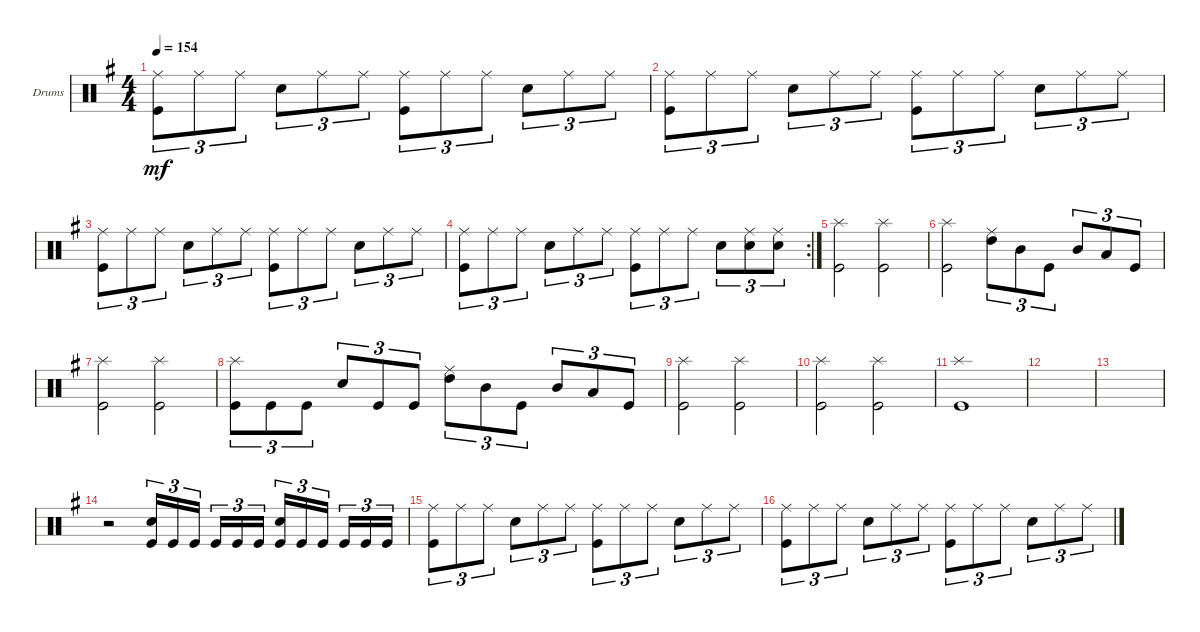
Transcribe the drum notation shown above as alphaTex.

\defaultSystemsLayout 4
\bracketExtendMode groupsimilarinstruments
\firstSystemTrackNameOrientation horizontal
\otherSystemsTrackNameOrientation horizontal
\track ("Drumkit" "Drums") {instrument percussion}
\staff {score}
\articulation defaults
\ts (4 4)
\tempo 154
\clef neutral
\ks g
("Kick (hit)" "Ride (middle)").8{tu (3 2) dy mf} "Ride (middle)".8{tu (3 2)} "Ride (middle)".8{tu (3 2)} "Snare (hit) 2".8{tu (3 2)} "Ride (middle)".8{tu (3 2)} "Ride (middle)".8{tu (3 2)} ("Ride (middle)" "Kick (hit)").8{tu (3 2)} "Ride (middle)".8{tu (3 2)} "Ride (middle)".8{tu (3 2)} "Snare (hit) 2".8{tu (3 2)} "Ride (middle)".8{tu (3 2)} "Ride (middle)".8{tu (3 2)} |
("Kick (hit)" "Ride (middle)").8{tu (3 2)} "Ride (middle)".8{tu (3 2)} "Ride (middle)".8{tu (3 2)} "Snare (hit) 2".8{tu (3 2)} "Ride (middle)".8{tu (3 2)} "Ride (middle)".8{tu (3 2)} ("Ride (middle)" "Kick (hit)").8{tu (3 2)} "Ride (middle)".8{tu (3 2)} "Ride (middle)".8{tu (3 2)} "Snare (hit) 2".8{tu (3 2)} "Ride (middle)".8{tu (3 2)} "Ride (middle)".8{tu (3 2)} |
("Kick (hit)" "Ride (middle)").8{tu (3 2)} "Ride (middle)".8{tu (3 2)} "Ride (middle)".8{tu (3 2)} "Snare (hit) 2".8{tu (3 2)} "Ride (middle)".8{tu (3 2)} "Ride (middle)".8{tu (3 2)} ("Ride (middle)" "Kick (hit)").8{tu (3 2)} "Ride (middle)".8{tu (3 2)} "Ride (middle)".8{tu (3 2)} "Snare (hit) 2".8{tu (3 2)} "Ride (middle)".8{tu (3 2)} "Ride (middle)".8{tu (3 2)} |
\rc 2
("Kick (hit)" "Ride (middle)").8{tu (3 2)} "Ride (middle)".8{tu (3 2)} "Ride (middle)".8{tu (3 2)} "Snare (hit) 2".8{tu (3 2)} "Ride (middle)".8{tu (3 2)} "Ride (middle)".8{tu (3 2)} ("Ride (middle)" "Kick (hit)").8{tu (3 2)} "Ride (middle)".8{tu (3 2)} "Ride (middle)".8{tu (3 2)} "Snare (hit) 2".8{tu (3 2)} ("Ride (middle)" "Snare (hit) 2").8{tu (3 2)} ("Ride (middle)" "Snare (hit) 2").8{tu (3 2)} |
("Kick (hit)" "Splash (hit)").2 ("Kick (hit)" "Splash (hit)").2 |
("Kick (hit)" "Splash (hit)").2 ("Ride (middle)" "High Tom (hit)").8{tu (3 2)} "Mid Tom (hit)".8{tu (3 2)} "Kick (hit)".8{tu (3 2)} "Mid Tom (hit)".8{tu (3 2)} "Low Tom (hit)".8{tu (3 2)} "Kick (hit)".8{tu (3 2)} |
("Kick (hit)" "Splash (hit)").2 ("Kick (hit)" "Splash (hit)").2 |
("Kick (hit)" "Splash (hit)").8{tu (3 2)} "Kick (hit)".8{tu (3 2)} "Kick (hit)".8{tu (3 2)} "Snare (hit) 2".8{tu (3 2)} "Kick (hit)".8{tu (3 2)} "Kick (hit)".8{tu (3 2)} ("Ride (middle)" "High Tom (hit)").8{tu (3 2)} "Mid Tom (hit)".8{tu (3 2)} "Kick (hit)".8{tu (3 2)} "Mid Tom (hit)".8{tu (3 2)} "Low Tom (hit)".8{tu (3 2)} "Kick (hit)".8{tu (3 2)} |
("Kick (hit)" "Splash (hit)").2 ("Kick (hit)" "Splash (hit)").2 |
("Kick (hit)" "Splash (hit)").2 ("Kick (hit)" "Splash (hit)").2 |
("Kick (hit)" "Splash (hit)").1 |
|
|
r.2 ("Kick (hit)" "Snare (hit) 2").16{tu (3 2)} "Kick (hit)".16{tu (3 2)} "Kick (hit)".16{tu (3 2)} "Kick (hit)".16{tu (3 2)} "Kick (hit)".16{tu (3 2)} "Kick (hit)".16{tu (3 2)} ("Snare (hit) 2" "Kick (hit)").16{tu (3 2)} "Kick (hit)".16{tu (3 2)} "Kick (hit)".16{tu (3 2)} "Kick (hit)".16{tu (3 2)} "Kick (hit)".16{tu (3 2)} "Kick (hit)".16{tu (3 2)} |
("Kick (hit)" "Ride (middle)").8{tu (3 2)} "Ride (middle)".8{tu (3 2)} "Ride (middle)".8{tu (3 2)} "Snare (hit) 2".8{tu (3 2)} "Ride (middle)".8{tu (3 2)} "Ride (middle)".8{tu (3 2)} ("Ride (middle)" "Kick (hit)").8{tu (3 2)} "Ride (middle)".8{tu (3 2)} "Ride (middle)".8{tu (3 2)} "Snare (hit) 2".8{tu (3 2)} "Ride (middle)".8{tu (3 2)} "Ride (middle)".8{tu (3 2)} |
("Kick (hit)" "Ride (middle)").8{tu (3 2)} "Ride (middle)".8{tu (3 2)} "Ride (middle)".8{tu (3 2)} "Snare (hit) 2".8{tu (3 2)} "Ride (middle)".8{tu (3 2)} "Ride (middle)".8{tu (3 2)} ("Ride (middle)" "Kick (hit)").8{tu (3 2)} "Ride (middle)".8{tu (3 2)} "Ride (middle)".8{tu (3 2)} "Snare (hit) 2".8{tu (3 2)} "Ride (middle)".8{tu (3 2)} "Ride (middle)".8{tu (3 2)}
